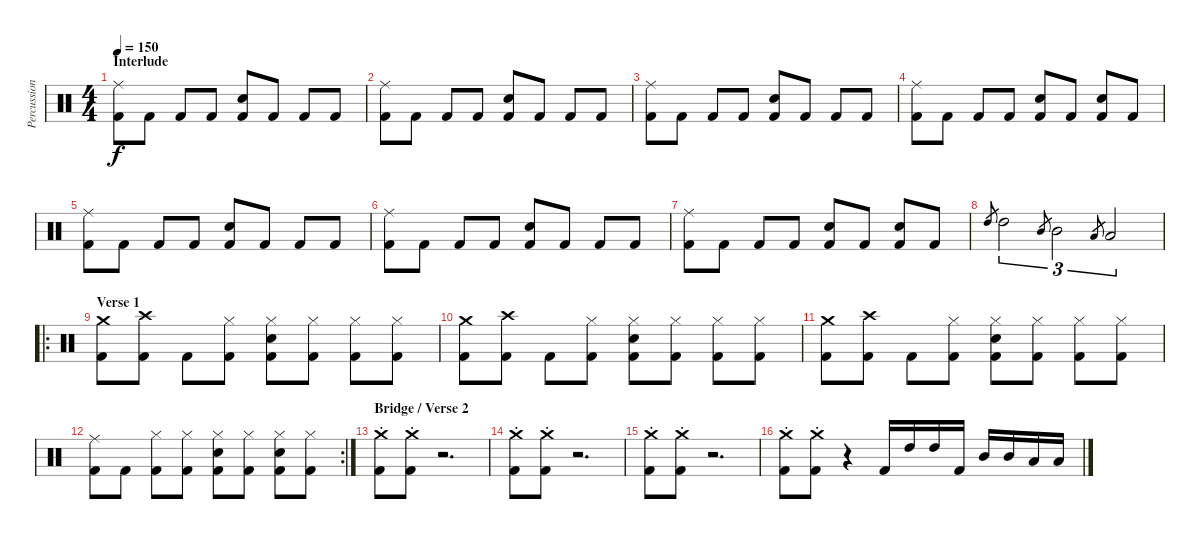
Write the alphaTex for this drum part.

\track ("Percussions" "Percussion") {instrument percussion}
\staff {score}
\articulation defaults
\ts (4 4)
\section ("" "Interlude")
\tempo 150
\clef neutral
\ks c
("Ride (middle)" "Kick (hit) 2").8{dy f} "Kick (hit) 2".8 "Kick (hit) 2".8 "Kick (hit) 2".8 ("Snare (hit) 2" "Kick (hit) 2").8 "Kick (hit) 2".8 "Kick (hit) 2".8 "Kick (hit) 2".8 |
("Ride (middle)" "Kick (hit) 2").8 "Kick (hit) 2".8 "Kick (hit) 2".8 "Kick (hit) 2".8 ("Snare (hit) 2" "Kick (hit) 2").8 "Kick (hit) 2".8 "Kick (hit) 2".8 "Kick (hit) 2".8 |
("Ride (middle)" "Kick (hit) 2").8 "Kick (hit) 2".8 "Kick (hit) 2".8 "Kick (hit) 2".8 ("Snare (hit) 2" "Kick (hit) 2").8 "Kick (hit) 2".8 "Kick (hit) 2".8 "Kick (hit) 2".8 |
("Ride (middle)" "Kick (hit) 2").8 "Kick (hit) 2".8 "Kick (hit) 2".8 "Kick (hit) 2".8 ("Snare (hit) 2" "Kick (hit) 2").8 "Kick (hit) 2".8 ("Snare (hit) 2" "Kick (hit) 2").8 "Kick (hit) 2".8 |
("Ride (middle)" "Kick (hit) 2").8 "Kick (hit) 2".8 "Kick (hit) 2".8 "Kick (hit) 2".8 ("Snare (hit) 2" "Kick (hit) 2").8 "Kick (hit) 2".8 "Kick (hit) 2".8 "Kick (hit) 2".8 |
("Ride (middle)" "Kick (hit) 2").8 "Kick (hit) 2".8 "Kick (hit) 2".8 "Kick (hit) 2".8 ("Snare (hit) 2" "Kick (hit) 2").8 "Kick (hit) 2".8 "Kick (hit) 2".8 "Kick (hit) 2".8 |
("Ride (middle)" "Kick (hit) 2").8 "Kick (hit) 2".8 "Kick (hit) 2".8 "Kick (hit) 2".8 ("Snare (hit) 2" "Kick (hit) 2").8 "Kick (hit) 2".8 ("Snare (hit) 2" "Kick (hit) 2").8 "Kick (hit) 2".8 |
"High Tom (hit)".8{gr} "High Tom (hit)".2{tu (3 2)} "Mid Tom (hit)".8{gr} "Mid Tom (hit)".2{tu (3 2)} "Low Tom (hit)".8{gr} "Low Tom (hit)".2{tu (3 2)} |
\ro
\section ("" "Verse 1")
("Crash medium (hit)" "Kick (hit) 2").8 ("Crash high (hit)" "Kick (hit) 2").8 "Kick (hit) 2".8 ("Hi-Hat (closed)" "Kick (hit) 2").8 ("Hi-Hat (closed)" "Snare (hit) 2" "Kick (hit) 2").8 ("Hi-Hat (closed)" "Kick (hit) 2").8 ("Hi-Hat (closed)" "Kick (hit) 2").8 ("Hi-Hat (closed)" "Kick (hit) 2").8 |
("Crash medium (hit)" "Kick (hit) 2").8 ("Crash high (hit)" "Kick (hit) 2").8 "Kick (hit) 2".8 ("Hi-Hat (closed)" "Kick (hit) 2").8 ("Hi-Hat (closed)" "Snare (hit) 2" "Kick (hit) 2").8 ("Hi-Hat (closed)" "Kick (hit) 2").8 ("Hi-Hat (closed)" "Kick (hit) 2").8 ("Hi-Hat (closed)" "Kick (hit) 2").8 |
("Crash medium (hit)" "Kick (hit) 2").8 ("Crash high (hit)" "Kick (hit) 2").8 "Kick (hit) 2".8 ("Hi-Hat (closed)" "Kick (hit) 2").8 ("Hi-Hat (closed)" "Snare (hit) 2" "Kick (hit) 2").8 ("Hi-Hat (closed)" "Kick (hit) 2").8 ("Hi-Hat (closed)" "Kick (hit) 2").8 ("Hi-Hat (closed)" "Kick (hit) 2").8 |
\rc 2
("Ride (middle)" "Kick (hit) 2").8 "Kick (hit) 2".8 ("Hi-Hat (closed)" "Kick (hit) 2").8 ("Hi-Hat (closed)" "Kick (hit) 2").8 ("Hi-Hat (closed)" "Snare (hit) 2" "Kick (hit) 2").8 ("Hi-Hat (closed)" "Kick (hit) 2").8 ("Hi-Hat (closed)" "Snare (hit) 2" "Kick (hit) 2").8 ("Hi-Hat (closed)" "Kick (hit) 2").8 |
\section ("" "Bridge / Verse 2 ")
("Crash medium (hit)"{st} "Kick (hit) 2").8 ("Crash medium (hit)"{st} "Kick (hit) 2").8 r.2{d} |
("Crash medium (hit)"{st} "Kick (hit) 2").8 ("Crash medium (hit)"{st} "Kick (hit) 2").8 r.2{d} |
("Crash medium (hit)"{st} "Kick (hit) 2").8 ("Crash medium (hit)"{st} "Kick (hit) 2").8 r.2{d} |
("Crash medium (hit)"{st} "Kick (hit) 2").8 ("Crash medium (hit)"{st} "Kick (hit) 2").8 r.4 "Kick (hit) 2".16 "High Tom (hit)".16 "High Tom (hit)".16 "Kick (hit) 2".16 "Mid Tom (hit)".16 "Mid Tom (hit)".16 "Low Tom (hit)".16 "Low Tom (hit)".16
